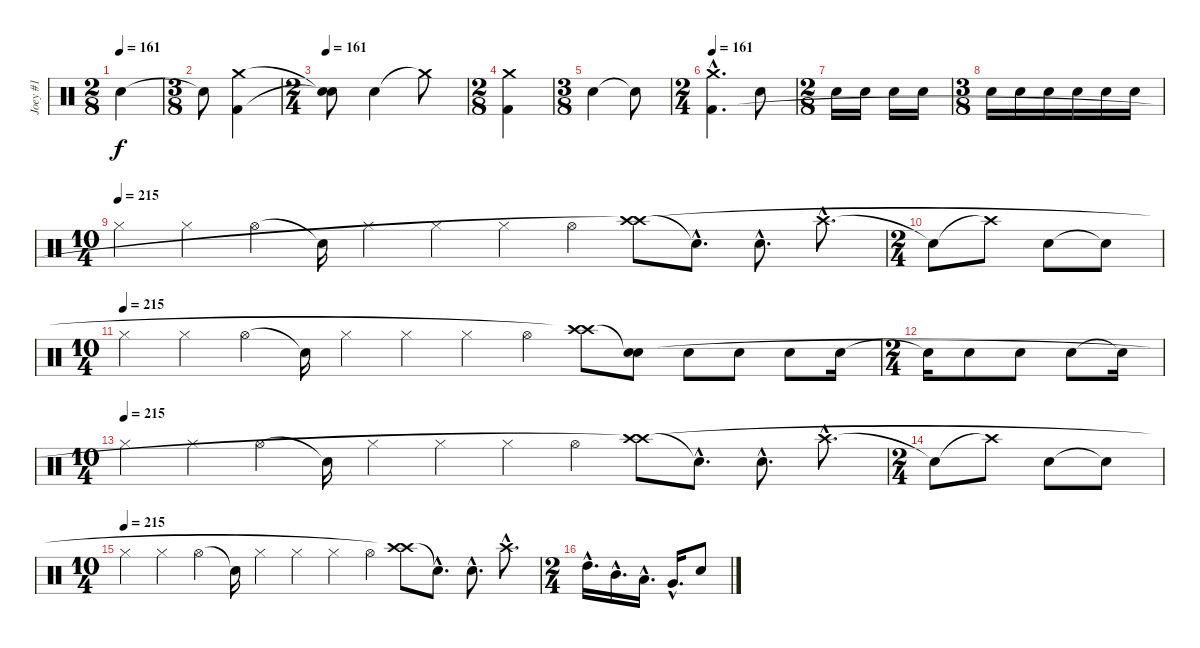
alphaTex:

\track ("Joey #1" "Joey #1") {instrument percussion}
\staff {score}
\articulation defaults
\ts (2 8)
\tempo 161
\clef neutral
\ks c "Electric Snare (hit)".4{dy f}
|
\ts (3 8)
"Snare (hit)"{t}.8 ("Crash medium (hit)" "Kick (hit) 2").4 |
\ts (2 4)
\tempo 161
("Snare (hit)"{t} "Snare (hit)"{t}).8 "Electric Snare (hit)".4 "Crash medium (hit)"{t}.8 |
\ts (2 8)
("Crash medium (hit)" "Kick (hit) 2").4 |
\ts (3 8)
"Electric Snare (hit)".4 "Snare (hit)"{t}.8 |
\ts (2 4)
\tempo 161
("Crash medium (hit)"{hac} "Kick (hit) 2"{hac}).4{d} "Electric Snare (hit)".8 |
\ts (2 8)
"Electric Snare (hit)".16 "Electric Snare (hit)".16 "Electric Snare (hit)".16 "Electric Snare (hit)".16 |
\ts (3 8)
"Electric Snare (hit)".16 "Electric Snare (hit)".16 "Electric Snare (hit)".16 "Electric Snare (hit)".16 "Electric Snare (hit)".16 "Electric Snare (hit)".16 |
\ts (10 4)
\tempo (215)
"Hi-Hat (closed)".4{volume 12} "Hi-Hat (closed)".4 "Hi-Hat (open)".4 "Snare (hit)"{t}.16 "Hi-Hat (closed)".4 "Hi-Hat (closed)".4 "Hi-Hat (closed)".4 "Hi-Hat (open)".4 ("Crash high (hit)" "Crash high (hit)"{t}).8 "Snare (hit)"{hac t}.8{d} "Snare (hit) 2"{hac}.8{d} "Crash high (hit)"{hac}.8{d} |
\ts (2 4)
"Snare (hit)"{t}.8 "Crash high (hit)"{t}.8 "Snare (hit) 2".8 "Snare (hit)"{t}.8 |
\ts (10 4)
\tempo (215)
"Hi-Hat (closed)".4{volume 12} "Hi-Hat (closed)".4 "Hi-Hat (open)".4 "Snare (hit)"{t}.16 "Hi-Hat (closed)".4 "Hi-Hat (closed)".4 "Hi-Hat (closed)".4 "Hi-Hat (open)".4 ("Crash high (hit)" "Crash high (hit)"{t}).8 ("Snare (hit)"{t} "Snare (hit) 2").8 "Snare (hit) 2".8 "Snare (hit) 2".8 "Snare (hit) 2".8 "Snare (hit) 2".16 |
\ts (2 4)
"Snare (hit) 2"{t}.16 "Snare (hit) 2".8 "Snare (hit) 2".8 "Snare (hit) 2".8 "Snare (hit)"{t}.16 |
\ts (10 4)
\tempo (215)
"Hi-Hat (closed)".4{volume 12} "Hi-Hat (closed)".4 "Hi-Hat (open)".4 "Snare (hit)"{t}.16 "Hi-Hat (closed)".4 "Hi-Hat (closed)".4 "Hi-Hat (closed)".4 "Hi-Hat (open)".4 ("Crash high (hit)" "Crash high (hit)"{t}).8 "Snare (hit)"{hac t}.8{d} "Snare (hit) 2"{hac}.8{d} "Crash high (hit)"{hac}.8{d} |
\ts (2 4)
"Snare (hit)"{t}.8 "Crash high (hit)"{t}.8 "Snare (hit) 2".8 "Snare (hit)"{t}.8 |
\ts (10 4)
\tempo (215)
"Hi-Hat (closed)".4{volume 12} "Hi-Hat (closed)".4 "Hi-Hat (open)".4 "Snare (hit)"{t}.16 "Hi-Hat (closed)".4 "Hi-Hat (closed)".4 "Hi-Hat (closed)".4 "Hi-Hat (open)".4 ("Crash high (hit)" "Crash high (hit)"{t}).8 "Snare (hit)"{hac t}.8{d} "Snare (hit) 2"{hac}.8{d} "Crash high (hit)"{hac}.8{d} |
\ts (2 4)
"High Tom (hit)"{hac}.16{d} "Mid Tom (hit)"{hac}.16{d} "Low Tom (hit)"{hac}.16{d} "Very Low Tom (hit)"{hac}.16{d} "Snare (hit) 2".8
